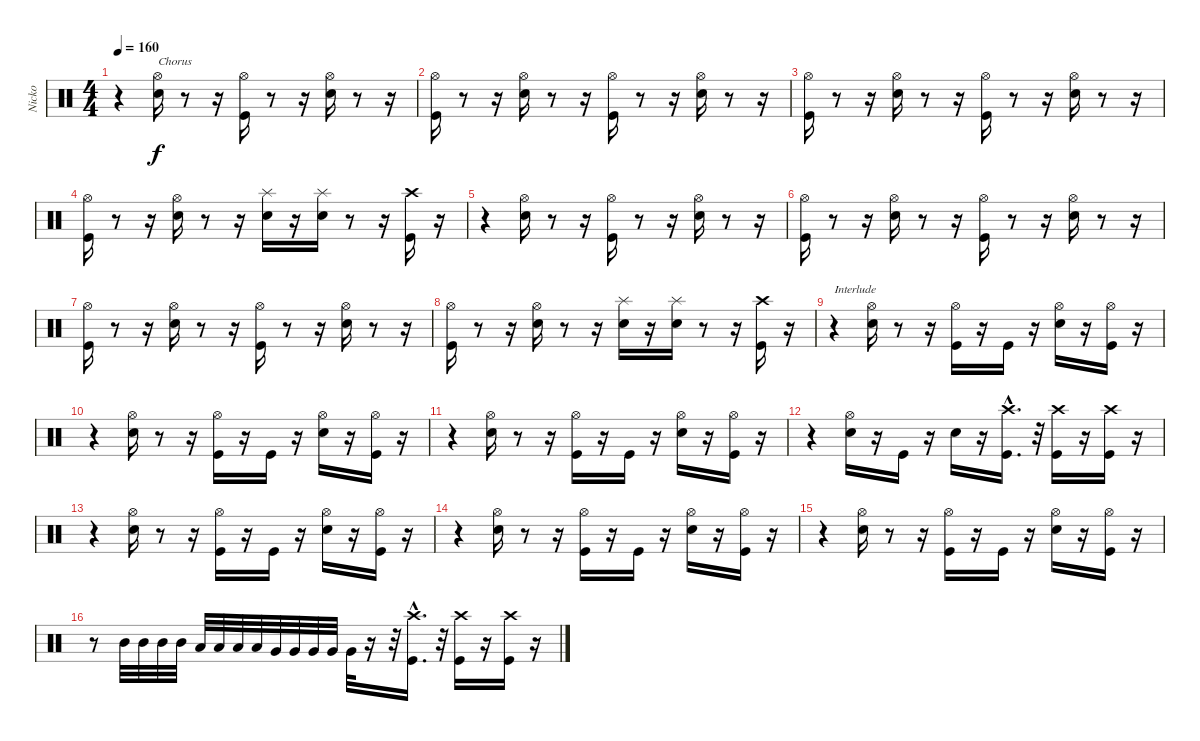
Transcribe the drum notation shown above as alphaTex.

\track ("Nicko" "Nicko") {instrument percussion}
\staff {score}
\articulation defaults
\ts (4 4)
\tempo 160
\clef neutral
\ks c
r.4{dy f} ("Hi-Hat (open)" "Snare (hit) 2").16{txt "Chorus"} r.8 r.16 ("Kick (hit)" "Hi-Hat (open)").16 r.8 r.16 ("Snare (hit) 2" "Hi-Hat (open)").16 r.8 r.16 |
("Kick (hit)" "Hi-Hat (open)").16 r.8 r.16 ("Hi-Hat (open)" "Snare (hit) 2").16 r.8 r.16 ("Kick (hit)" "Hi-Hat (open)").16 r.8 r.16 ("Snare (hit) 2" "Hi-Hat (open)").16 r.8 r.16 |
("Kick (hit)" "Hi-Hat (open)").16 r.8 r.16 ("Hi-Hat (open)" "Snare (hit) 2").16 r.8 r.16 ("Kick (hit)" "Hi-Hat (open)").16 r.8 r.16 ("Snare (hit) 2" "Hi-Hat (open)").16 r.8 r.16 |
("Kick (hit)" "Hi-Hat (open)").16 r.8 r.16 ("Hi-Hat (open)" "Snare (hit) 2").16 r.8 r.16 ("Snare (hit) 2" "Splash (hit)").16 r.16 ("Snare (hit) 2" "Splash (hit)").16 r.8 r.16 ("Kick (hit)" "Crash high (hit)").16 r.16 |
r.4 ("Hi-Hat (open)" "Snare (hit) 2").16 r.8 r.16 ("Kick (hit)" "Hi-Hat (open)").16 r.8 r.16 ("Snare (hit) 2" "Hi-Hat (open)").16 r.8 r.16 |
("Kick (hit)" "Hi-Hat (open)").16 r.8 r.16 ("Hi-Hat (open)" "Snare (hit) 2").16 r.8 r.16 ("Kick (hit)" "Hi-Hat (open)").16 r.8 r.16 ("Snare (hit) 2" "Hi-Hat (open)").16 r.8 r.16 |
("Kick (hit)" "Hi-Hat (open)").16 r.8 r.16 ("Hi-Hat (open)" "Snare (hit) 2").16 r.8 r.16 ("Kick (hit)" "Hi-Hat (open)").16 r.8 r.16 ("Snare (hit) 2" "Hi-Hat (open)").16 r.8 r.16 |
("Kick (hit)" "Hi-Hat (open)").16 r.8 r.16 ("Hi-Hat (open)" "Snare (hit) 2").16 r.8 r.16 ("Snare (hit) 2" "Splash (hit)").16 r.16 ("Snare (hit) 2" "Splash (hit)").16 r.8 r.16 ("Kick (hit)" "Crash high (hit)").16 r.16 |
r.4{txt "Interlude"} ("Hi-Hat (open)" "Snare (hit) 2").16 r.8 r.16 ("Hi-Hat (open)" "Kick (hit)").16 r.16 "Kick (hit)".16 r.16 ("Snare (hit) 2" "Hi-Hat (open)").16 r.16 ("Kick (hit)" "Hi-Hat (open)").16 r.16 |
r.4 ("Snare (hit) 2" "Hi-Hat (open)").16 r.8 r.16 ("Hi-Hat (open)" "Kick (hit)").16 r.16 "Kick (hit)".16 r.16 ("Snare (hit) 2" "Hi-Hat (open)").16 r.16 ("Kick (hit)" "Hi-Hat (open)").16 r.16 |
r.4 ("Snare (hit) 2" "Hi-Hat (open)").16 r.8 r.16 ("Hi-Hat (open)" "Kick (hit)").16 r.16 "Kick (hit)".16 r.16 ("Snare (hit) 2" "Hi-Hat (open)").16 r.16 ("Kick (hit)" "Hi-Hat (open)").16 r.16 |
r.4 ("Hi-Hat (open)" "Snare (hit) 2").16 r.16 "Kick (hit)".16 r.16 "Snare (hit) 2".16 r.16 ("Kick (hit)"{hac} "Crash high (hit)"{hac}).16{d} r.32 ("Crash high (hit)" "Kick (hit)").16 r.16 ("Kick (hit)" "Crash high (hit)").16 r.16 |
r.4 ("Snare (hit) 2" "Hi-Hat (open)").16 r.8 r.16 ("Hi-Hat (open)" "Kick (hit)").16 r.16 "Kick (hit)".16 r.16 ("Snare (hit) 2" "Hi-Hat (open)").16 r.16 ("Kick (hit)" "Hi-Hat (open)").16 r.16 |
r.4 ("Snare (hit) 2" "Hi-Hat (open)").16 r.8 r.16 ("Hi-Hat (open)" "Kick (hit)").16 r.16 "Kick (hit)".16 r.16 ("Snare (hit) 2" "Hi-Hat (open)").16 r.16 ("Kick (hit)" "Hi-Hat (open)").16 r.16 |
r.4 ("Snare (hit) 2" "Hi-Hat (open)").16 r.8 r.16 ("Hi-Hat (open)" "Kick (hit)").16 r.16 "Kick (hit)".16 r.16 ("Snare (hit) 2" "Hi-Hat (open)").16 r.16 ("Kick (hit)" "Hi-Hat (open)").16 r.16 |
r.8 "Mid Tom (hit)".32 "Mid Tom (hit)".32 "Mid Tom (hit)".32 "Mid Tom (hit)".32 "Low Tom (hit)".32 "Low Tom (hit)".32 "Low Tom (hit)".32 "Low Tom (hit)".32 "Very Low Tom (hit)".32 "Very Low Tom (hit)".32 "Very Low Tom (hit)".32 "Very Low Tom (hit)".32 "Very Low Tom (hit)".32 r.16 r.32 ("Crash high (hit)"{hac} "Kick (hit)"{hac}).16{d} r.32 ("Crash high (hit)" "Kick (hit)").16 r.16 ("Kick (hit)" "Crash high (hit)").16 r.16
